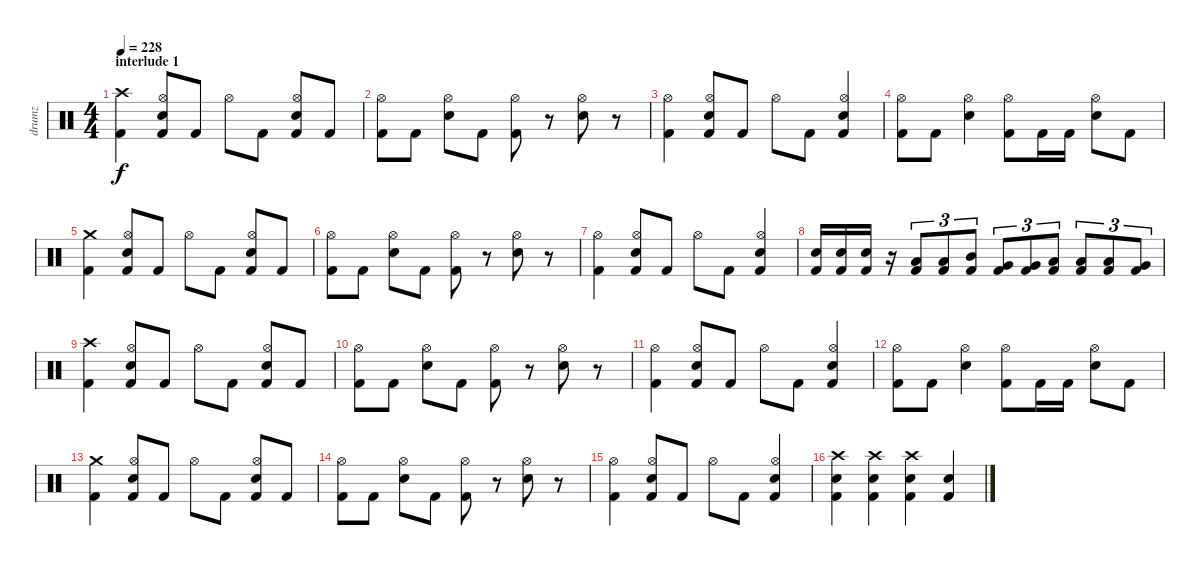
\track ("drumz" "drumz") {instrument percussion}
\staff {score}
\articulation defaults
\ts (4 4)
\section ("" "interlude 1")
\tempo 228
\clef neutral
\ks c
("Crash high (hit)" "Kick (hit) 2").4{dy f} ("Hi-Hat (open)" "Snare (hit) 2" "Kick (hit) 2").8 "Kick (hit) 2".8 "Hi-Hat (open)".8 "Kick (hit) 2".8 ("Hi-Hat (open)" "Snare (hit) 2" "Kick (hit) 2").8 "Kick (hit) 2".8 |
("Hi-Hat (open)" "Kick (hit) 2").8 "Kick (hit) 2".8 ("Hi-Hat (open)" "Snare (hit) 2").8 "Kick (hit) 2".8 ("Hi-Hat (open)" "Kick (hit) 2").8 r.8 ("Hi-Hat (open)" "Snare (hit) 2").8 r.8 |
("Hi-Hat (open)" "Kick (hit) 2").4 ("Hi-Hat (open)" "Snare (hit) 2" "Kick (hit) 2").8 "Kick (hit) 2".8 "Hi-Hat (open)".8 "Kick (hit) 2".8 ("Hi-Hat (open)" "Snare (hit) 2" "Kick (hit) 2").4 |
("Hi-Hat (open)" "Kick (hit) 2").8 "Kick (hit) 2".8 ("Hi-Hat (open)" "Snare (hit) 2").4 ("Hi-Hat (open)" "Kick (hit) 2").8 "Kick (hit) 2".16 "Kick (hit) 2".16 ("Hi-Hat (open)" "Snare (hit) 2").8 "Kick (hit) 2".8 |
("Crash medium (hit)" "Kick (hit) 2").4 ("Hi-Hat (open)" "Snare (hit) 2" "Kick (hit) 2").8 "Kick (hit) 2".8 "Hi-Hat (open)".8 "Kick (hit) 2".8 ("Hi-Hat (open)" "Snare (hit) 2" "Kick (hit) 2").8 "Kick (hit) 2".8 |
("Hi-Hat (open)" "Kick (hit) 2").8 "Kick (hit) 2".8 ("Hi-Hat (open)" "Snare (hit) 2").8 "Kick (hit) 2".8 ("Hi-Hat (open)" "Kick (hit) 2").8 r.8 ("Hi-Hat (open)" "Snare (hit) 2").8 r.8 |
("Hi-Hat (open)" "Kick (hit) 2").4 ("Hi-Hat (open)" "Snare (hit) 2" "Kick (hit) 2").8 "Kick (hit) 2".8 "Hi-Hat (open)".8 "Kick (hit) 2".8 ("Hi-Hat (open)" "Snare (hit) 2" "Kick (hit) 2").4 |
("Snare (hit) 2" "Kick (hit) 2").16 ("Snare (hit) 2" "Kick (hit) 2").16 ("Snare (hit) 2" "Kick (hit) 2").16 r.16 ("Low Tom (hit)" "Kick (hit) 2").8{tu (3 2)} ("Low Tom (hit)" "Kick (hit) 2").8{tu (3 2)} ("Mid Tom (hit)" "Kick (hit) 2").8{tu (3 2)} ("Very Low Tom (hit)" "Kick (hit) 2").8{tu (3 2)} ("Very Low Tom (hit)" "Kick (hit) 2").8{tu (3 2)} ("Low Tom (hit)" "Kick (hit) 2").8{tu (3 2)} ("Low Floor Tom (hit)" "Kick (hit) 2").8{tu (3 2)} ("Low Floor Tom (hit)" "Kick (hit) 2").8{tu (3 2)} ("Very Low Tom (hit)" "Kick (hit) 2").8{tu (3 2)} |
("Crash high (hit)" "Kick (hit) 2").4 ("Hi-Hat (open)" "Snare (hit) 2" "Kick (hit) 2").8 "Kick (hit) 2".8 "Hi-Hat (open)".8 "Kick (hit) 2".8 ("Hi-Hat (open)" "Snare (hit) 2" "Kick (hit) 2").8 "Kick (hit) 2".8 |
("Hi-Hat (open)" "Kick (hit) 2").8 "Kick (hit) 2".8 ("Hi-Hat (open)" "Snare (hit) 2").8 "Kick (hit) 2".8 ("Hi-Hat (open)" "Kick (hit) 2").8 r.8 ("Hi-Hat (open)" "Snare (hit) 2").8 r.8 |
("Hi-Hat (open)" "Kick (hit) 2").4 ("Hi-Hat (open)" "Snare (hit) 2" "Kick (hit) 2").8 "Kick (hit) 2".8 "Hi-Hat (open)".8 "Kick (hit) 2".8 ("Hi-Hat (open)" "Snare (hit) 2" "Kick (hit) 2").4 |
("Hi-Hat (open)" "Kick (hit) 2").8 "Kick (hit) 2".8 ("Hi-Hat (open)" "Snare (hit) 2").4 ("Hi-Hat (open)" "Kick (hit) 2").8 "Kick (hit) 2".16 "Kick (hit) 2".16 ("Hi-Hat (open)" "Snare (hit) 2").8 "Kick (hit) 2".8 |
("Crash medium (hit)" "Kick (hit) 2").4 ("Hi-Hat (open)" "Snare (hit) 2" "Kick (hit) 2").8 "Kick (hit) 2".8 "Hi-Hat (open)".8 "Kick (hit) 2".8 ("Hi-Hat (open)" "Snare (hit) 2" "Kick (hit) 2").8 "Kick (hit) 2".8 |
("Hi-Hat (open)" "Kick (hit) 2").8 "Kick (hit) 2".8 ("Hi-Hat (open)" "Snare (hit) 2").8 "Kick (hit) 2".8 ("Hi-Hat (open)" "Kick (hit) 2").8 r.8 ("Hi-Hat (open)" "Snare (hit) 2").8 r.8 |
("Hi-Hat (open)" "Kick (hit) 2").4 ("Hi-Hat (open)" "Snare (hit) 2" "Kick (hit) 2").8 "Kick (hit) 2".8 "Hi-Hat (open)".8 "Kick (hit) 2".8 ("Hi-Hat (open)" "Snare (hit) 2" "Kick (hit) 2").4 |
("Crash high (hit)" "Snare (hit) 2" "Kick (hit) 2").4 ("Crash high (hit)" "Snare (hit) 2" "Kick (hit) 2").4 ("Crash high (hit)" "Snare (hit) 2" "Kick (hit) 2").4 ("Snare (hit) 2" "Kick (hit) 2").4
